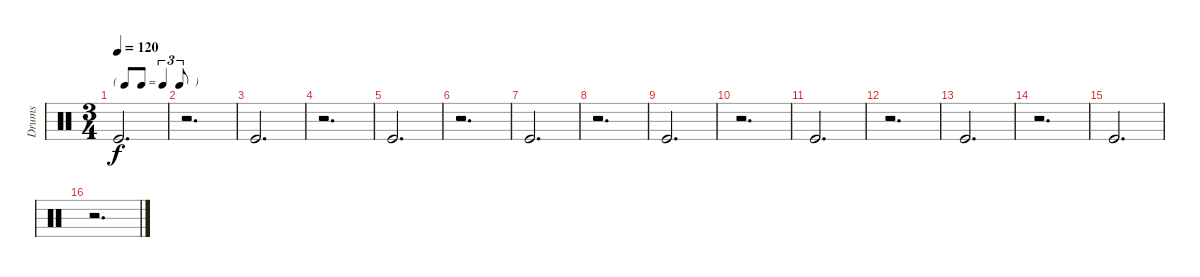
\track ("Drums" "Drums") {instrument percussion}
\staff {score}
\articulation defaults
\ts (3 4)
\tf triplet8th
\tempo 120
\clef neutral
\ks c "Kick (hit)".2{d dy f}
|
r.2{d} |
"Kick (hit)".2{d} |
r.2{d} |
"Kick (hit)".2{d} |
r.2{d} |
"Kick (hit)".2{d} |
r.2{d} |
"Kick (hit)".2{d} |
r.2{d} |
"Kick (hit)".2{d} |
r.2{d} |
"Kick (hit)".2{d} |
r.2{d} |
"Kick (hit)".2{d} |
r.2{d}
